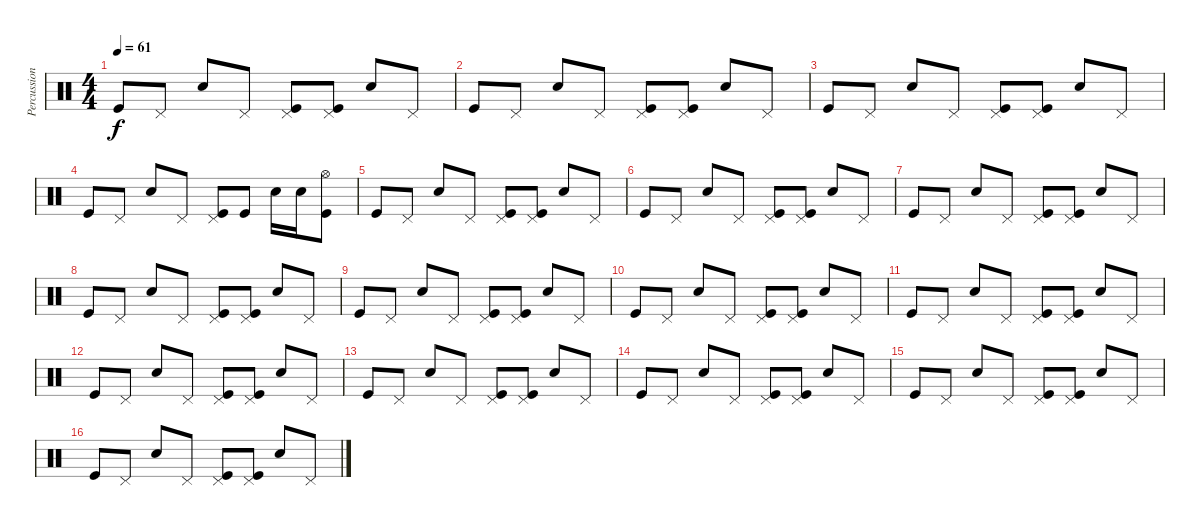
\track ("Percussion" "Percussion") {instrument percussion}
\staff {score}
\articulation defaults
\ts (4 4)
\tempo 61
\clef neutral
\ks c "Kick (hit)".8{dy f} "Pedal Hi-Hat (hit)".8 "Snare (hit) 2".8 "Pedal Hi-Hat (hit)".8
("Pedal Hi-Hat (hit)" "Kick (hit)").8 ("Pedal Hi-Hat (hit)" "Kick (hit)").8 "Snare (hit) 2".8 "Pedal Hi-Hat (hit)".8 |
"Kick (hit)".8 "Pedal Hi-Hat (hit)".8 "Snare (hit) 2".8 "Pedal Hi-Hat (hit)".8 ("Pedal Hi-Hat (hit)" "Kick (hit)").8 ("Pedal Hi-Hat (hit)" "Kick (hit)").8 "Snare (hit) 2".8 "Pedal Hi-Hat (hit)".8 |
"Kick (hit)".8 "Pedal Hi-Hat (hit)".8 "Snare (hit) 2".8 "Pedal Hi-Hat (hit)".8 ("Pedal Hi-Hat (hit)" "Kick (hit)").8 ("Pedal Hi-Hat (hit)" "Kick (hit)").8 "Snare (hit) 2".8 "Pedal Hi-Hat (hit)".8 |
"Kick (hit)".8 "Pedal Hi-Hat (hit)".8 "Snare (hit) 2".8 "Pedal Hi-Hat (hit)".8 ("Pedal Hi-Hat (hit)" "Kick (hit)").8 "Kick (hit)".8 "Snare (hit) 2".16 "Snare (hit) 2".16 ("Kick (hit)" "Hi-Hat (open)").8 |
"Kick (hit)".8 "Pedal Hi-Hat (hit)".8 "Snare (hit) 2".8 "Pedal Hi-Hat (hit)".8 ("Pedal Hi-Hat (hit)" "Kick (hit)").8 ("Pedal Hi-Hat (hit)" "Kick (hit)").8 "Snare (hit) 2".8 "Pedal Hi-Hat (hit)".8 |
"Kick (hit)".8 "Pedal Hi-Hat (hit)".8 "Snare (hit) 2".8 "Pedal Hi-Hat (hit)".8 ("Pedal Hi-Hat (hit)" "Kick (hit)").8 ("Pedal Hi-Hat (hit)" "Kick (hit)").8 "Snare (hit) 2".8 "Pedal Hi-Hat (hit)".8 |
"Kick (hit)".8 "Pedal Hi-Hat (hit)".8 "Snare (hit) 2".8 "Pedal Hi-Hat (hit)".8 ("Pedal Hi-Hat (hit)" "Kick (hit)").8 ("Pedal Hi-Hat (hit)" "Kick (hit)").8 "Snare (hit) 2".8 "Pedal Hi-Hat (hit)".8 |
"Kick (hit)".8 "Pedal Hi-Hat (hit)".8 "Snare (hit) 2".8 "Pedal Hi-Hat (hit)".8 ("Pedal Hi-Hat (hit)" "Kick (hit)").8 ("Pedal Hi-Hat (hit)" "Kick (hit)").8 "Snare (hit) 2".8 "Pedal Hi-Hat (hit)".8 |
"Kick (hit)".8 "Pedal Hi-Hat (hit)".8 "Snare (hit) 2".8 "Pedal Hi-Hat (hit)".8 ("Pedal Hi-Hat (hit)" "Kick (hit)").8 ("Pedal Hi-Hat (hit)" "Kick (hit)").8 "Snare (hit) 2".8 "Pedal Hi-Hat (hit)".8 |
"Kick (hit)".8 "Pedal Hi-Hat (hit)".8 "Snare (hit) 2".8 "Pedal Hi-Hat (hit)".8 ("Pedal Hi-Hat (hit)" "Kick (hit)").8 ("Pedal Hi-Hat (hit)" "Kick (hit)").8 "Snare (hit) 2".8 "Pedal Hi-Hat (hit)".8 |
"Kick (hit)".8 "Pedal Hi-Hat (hit)".8 "Snare (hit) 2".8 "Pedal Hi-Hat (hit)".8 ("Pedal Hi-Hat (hit)" "Kick (hit)").8 ("Pedal Hi-Hat (hit)" "Kick (hit)").8 "Snare (hit) 2".8 "Pedal Hi-Hat (hit)".8 |
"Kick (hit)".8 "Pedal Hi-Hat (hit)".8 "Snare (hit) 2".8 "Pedal Hi-Hat (hit)".8 ("Pedal Hi-Hat (hit)" "Kick (hit)").8 ("Pedal Hi-Hat (hit)" "Kick (hit)").8 "Snare (hit) 2".8 "Pedal Hi-Hat (hit)".8 |
"Kick (hit)".8 "Pedal Hi-Hat (hit)".8 "Snare (hit) 2".8 "Pedal Hi-Hat (hit)".8 ("Pedal Hi-Hat (hit)" "Kick (hit)").8 ("Pedal Hi-Hat (hit)" "Kick (hit)").8 "Snare (hit) 2".8 "Pedal Hi-Hat (hit)".8 |
"Kick (hit)".8 "Pedal Hi-Hat (hit)".8 "Snare (hit) 2".8 "Pedal Hi-Hat (hit)".8 ("Pedal Hi-Hat (hit)" "Kick (hit)").8 ("Pedal Hi-Hat (hit)" "Kick (hit)").8 "Snare (hit) 2".8 "Pedal Hi-Hat (hit)".8 |
"Kick (hit)".8 "Pedal Hi-Hat (hit)".8 "Snare (hit) 2".8 "Pedal Hi-Hat (hit)".8 ("Pedal Hi-Hat (hit)" "Kick (hit)").8 ("Pedal Hi-Hat (hit)" "Kick (hit)").8 "Snare (hit) 2".8 "Pedal Hi-Hat (hit)".8 |
"Kick (hit)".8 "Pedal Hi-Hat (hit)".8 "Snare (hit) 2".8 "Pedal Hi-Hat (hit)".8 ("Pedal Hi-Hat (hit)" "Kick (hit)").8 ("Pedal Hi-Hat (hit)" "Kick (hit)").8 "Snare (hit) 2".8 "Pedal Hi-Hat (hit)".8
